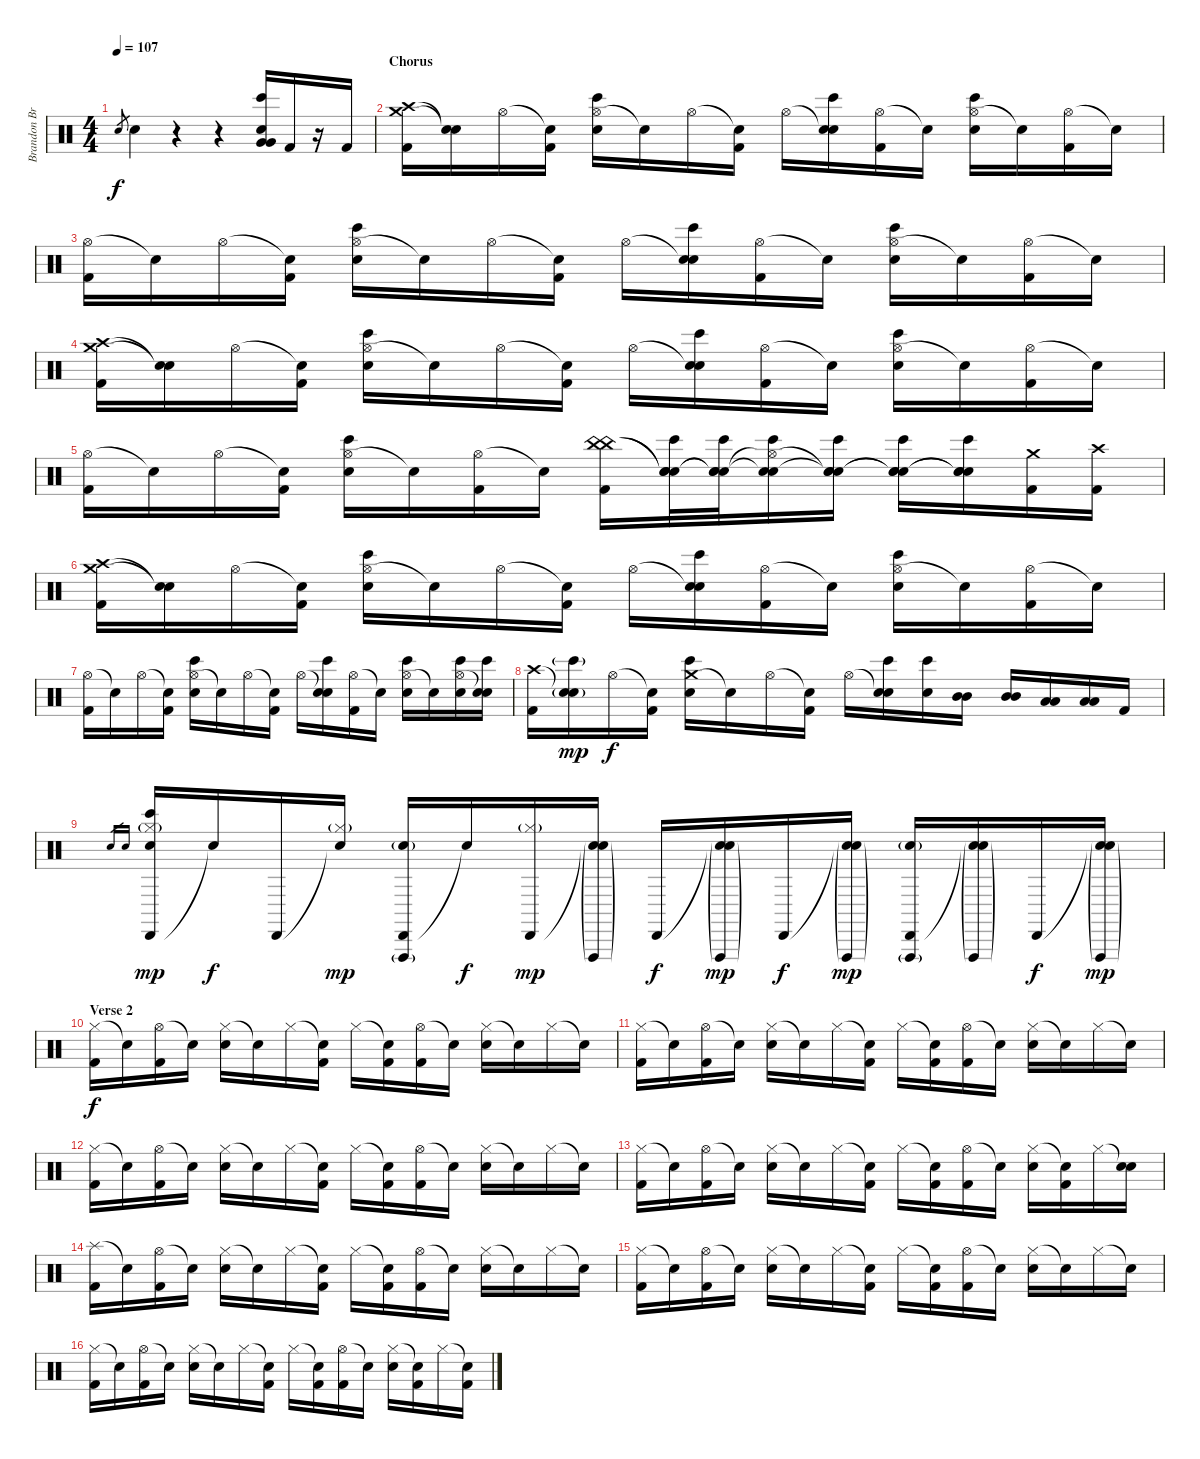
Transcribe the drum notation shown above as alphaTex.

\track ("Brandon Brown (Drums)" "Brandon Br") {instrument percussion}
\staff {score}
\articulation defaults
\ts (4 4)
\tempo 107
\clef neutral
\ks c "Electric Snare (hit)".8{gr dy f} "Electric Snare (hit)".4
r.4 r.4 ("Bongo High (hit)" "Electric Snare (hit)" "Very Low Tom (hit)" "Very Low Tom (hit)").16 "Kick (hit) 2".16 r.16 "Kick (hit) 2".16 |
\section ("" "Chorus")
("Crash high (hit)" "Crash medium (hit)" "Kick (hit) 2").16 ("Snare (hit)"{t} "Snare (hit)"{t}).16 "Hi-Hat (open)".16 ("Snare (hit)"{t} "Kick (hit) 2").16 ("Hi-Hat (open)" "Electric Snare (hit)" "Bongo High (hit)").16 "Snare (hit)"{t}.16 "Hi-Hat (open)".16 ("Snare (hit)"{t} "Kick (hit) 2").16 "Hi-Hat (open)".16 ("Snare (hit)"{t} "Electric Snare (hit)" "Bongo High (hit)").16 ("Hi-Hat (open)" "Kick (hit) 2").16 "Snare (hit)"{t}.16 ("Hi-Hat (open)" "Electric Snare (hit)" "Bongo High (hit)").16 "Snare (hit)"{t}.16 ("Hi-Hat (open)" "Kick (hit) 2").16 "Snare (hit)"{t}.16 |
("Hi-Hat (open)" "Kick (hit) 2").16 "Snare (hit)"{t}.16 "Hi-Hat (open)".16 ("Snare (hit)"{t} "Kick (hit) 2").16 ("Hi-Hat (open)" "Electric Snare (hit)" "Bongo High (hit)").16 "Snare (hit)"{t}.16 "Hi-Hat (open)".16 ("Snare (hit)"{t} "Kick (hit) 2").16 "Hi-Hat (open)".16 ("Snare (hit)"{t} "Electric Snare (hit)" "Bongo High (hit)").16 ("Hi-Hat (open)" "Kick (hit) 2").16 "Snare (hit)"{t}.16 ("Hi-Hat (open)" "Electric Snare (hit)" "Bongo High (hit)").16 "Snare (hit)"{t}.16 ("Hi-Hat (open)" "Kick (hit) 2").16 "Snare (hit)"{t}.16 |
("Crash high (hit)" "Crash medium (hit)" "Kick (hit) 2").16 ("Snare (hit)"{t} "Snare (hit)"{t}).16 "Hi-Hat (open)".16 ("Snare (hit)"{t} "Kick (hit) 2").16 ("Hi-Hat (open)" "Electric Snare (hit)" "Bongo High (hit)").16 "Snare (hit)"{t}.16 "Hi-Hat (open)".16 ("Snare (hit)"{t} "Kick (hit) 2").16 "Hi-Hat (open)".16 ("Snare (hit)"{t} "Electric Snare (hit)" "Bongo High (hit)").16 ("Hi-Hat (open)" "Kick (hit) 2").16 "Snare (hit)"{t}.16 ("Hi-Hat (open)" "Electric Snare (hit)" "Bongo High (hit)").16 "Snare (hit)"{t}.16 ("Hi-Hat (open)" "Kick (hit) 2").16 "Snare (hit)"{t}.16 |
("Hi-Hat (open)" "Kick (hit) 2").16 "Snare (hit)"{t}.16 "Hi-Hat (open)".16 ("Snare (hit)"{t} "Kick (hit) 2").16 ("Hi-Hat (open)" "Electric Snare (hit)" "Bongo High (hit)").16 "Snare (hit)"{t}.16 ("Hi-Hat (open)" "Kick (hit) 2").16 "Snare (hit)"{t}.16 ("China (hit)" "China (hit)" "Kick (hit) 2").16 ("Snare (hit)"{t} "Snare (hit)"{t} "Electric Snare (hit)" "Bongo High (hit)").32 ("Snare (hit)"{t} "Snare (hit)"{t} "Electric Snare (hit)" "Bongo High (hit)").32 ("Hi-Hat (open)"{t} "Snare (hit)"{t} "Electric Snare (hit)" "Bongo High (hit)").16 ("Snare (hit)"{t} "Snare (hit)"{t} "Electric Snare (hit)" "Bongo High (hit)").16 ("Snare (hit)"{t} "Snare (hit)"{t} "Electric Snare (hit)" "Bongo High (hit)").16 ("Snare (hit)"{t} "Snare (hit)"{t} "Electric Snare (hit)" "Bongo High (hit)").16 ("Crash medium (hit)" "Kick (hit) 2").16 ("Crash high (hit)" "Kick (hit) 2").16 |
("Crash high (hit)" "Crash medium (hit)" "Kick (hit) 2").16 ("Snare (hit)"{t} "Snare (hit)"{t}).16 "Hi-Hat (open)".16 ("Snare (hit)"{t} "Kick (hit) 2").16 ("Hi-Hat (open)" "Electric Snare (hit)" "Bongo High (hit)").16 "Snare (hit)"{t}.16 "Hi-Hat (open)".16 ("Snare (hit)"{t} "Kick (hit) 2").16 "Hi-Hat (open)".16 ("Snare (hit)"{t} "Electric Snare (hit)" "Bongo High (hit)").16 ("Hi-Hat (open)" "Kick (hit) 2").16 "Snare (hit)"{t}.16 ("Hi-Hat (open)" "Electric Snare (hit)" "Bongo High (hit)").16 "Snare (hit)"{t}.16 ("Hi-Hat (open)" "Kick (hit) 2").16 "Snare (hit)"{t}.16 |
("Hi-Hat (open)" "Kick (hit) 2").16 "Snare (hit)"{t}.16 "Hi-Hat (open)".16 ("Snare (hit)"{t} "Kick (hit) 2").16 ("Hi-Hat (open)" "Electric Snare (hit)" "Bongo High (hit)").16 "Snare (hit)"{t}.16 "Hi-Hat (open)".16 ("Snare (hit)"{t} "Kick (hit) 2").16 "Hi-Hat (open)".16 ("Snare (hit)"{t} "Electric Snare (hit)" "Bongo High (hit)").16 ("Hi-Hat (open)" "Kick (hit) 2").16 "Snare (hit)"{t}.16 ("Hi-Hat (open)" "Electric Snare (hit)" "Bongo High (hit)").16 "Snare (hit)"{t}.16 ("Hi-Hat (open)" "Electric Snare (hit)" "Bongo High (hit)").16 ("Snare (hit)"{t} "Electric Snare (hit)" "Bongo High (hit)").16 |
("Crash high (hit)" "Kick (hit) 2").16 ("Snare (hit)"{t} "Electric Snare (hit)"{g} "Bongo High (hit)"{g}).16{dy mp} "Hi-Hat (open)".16{dy f} ("Snare (hit)"{t} "Kick (hit) 2").16 ("Crash medium (hit)" "Electric Snare (hit)" "Bongo High (hit)").16 "Snare (hit)"{t}.16 "Hi-Hat (open)".16 ("Snare (hit)"{t} "Kick (hit) 2").16 "Hi-Hat (open)".16 ("Snare (hit)"{t} "Electric Snare (hit)" "Bongo High (hit)").16 ("Electric Snare (hit)" "Bongo High (hit)").16 ("Mid Tom (hit)" "Mid Tom (hit)").16 ("Mid Tom (hit)" "Mid Tom (hit)").16 ("Low Tom (hit)" "Low Tom (hit)").16 ("Low Tom (hit)" "Low Tom (hit)").16 "Kick (hit) 2".16 |
"Electric Snare (hit)".16{gr} "Snare (hit)".16{gr} ("Cabasa (hit)" "Electric Snare (hit)" "Bongo High (hit)" "Hi-Hat (closed)"{g}).16{dy mp} "Snare (hit)"{t}.16{dy f} "Cabasa (hit)".16 ("Snare (hit)"{t} "Hi-Hat (closed)"{g}).16{dy mp} ("Cabasa (hit)" "Vibraslap (hit)"{g} "Hand Clap (hit)"{g}).16 "Snare (hit)"{t}.16{dy f} ("Cabasa (hit)" "Hi-Hat (closed)"{g}).16{dy mp} ("Snare (hit)"{t} "Vibraslap (hit)"{g} "Hand Clap (hit)"{g}).16 "Cabasa (hit)".16{dy f} ("Snare (hit)"{t} "Vibraslap (hit)"{g} "Hand Clap (hit)"{g}).16{dy mp} "Cabasa (hit)".16{dy f} ("Snare (hit)"{t} "Vibraslap (hit)"{g} "Hand Clap (hit)"{g}).16{dy mp} ("Cabasa (hit)" "Vibraslap (hit)"{g} "Hand Clap (hit)"{g}).16 ("Snare (hit)"{t} "Vibraslap (hit)"{g} "Hand Clap (hit)"{g}).16 "Cabasa (hit)".16{dy f} ("Snare (hit)"{t} "Vibraslap (hit)"{g} "Hand Clap (hit)"{g}).16{dy mp} |
\section ("" "Verse 2")
("Hi-Hat (closed)" "Kick (hit) 2").16{dy f} "Snare (hit)"{t}.16 ("Hi-Hat (open)" "Kick (hit) 2").16 "Snare (hit)"{t}.16 ("Hi-Hat (closed)" "Electric Snare (hit)").16 "Snare (hit)"{t}.16 "Hi-Hat (closed)".16 ("Snare (hit)"{t} "Kick (hit) 2").16 "Hi-Hat (closed)".16 ("Snare (hit)"{t} "Kick (hit) 2").16 ("Hi-Hat (open)" "Kick (hit) 2").16 "Snare (hit)"{t}.16 ("Hi-Hat (closed)" "Electric Snare (hit)").16 "Snare (hit)"{t}.16 "Hi-Hat (closed)".16 "Snare (hit)"{t}.16 |
("Hi-Hat (closed)" "Kick (hit) 2").16 "Snare (hit)"{t}.16 ("Hi-Hat (open)" "Kick (hit) 2").16 "Snare (hit)"{t}.16 ("Hi-Hat (closed)" "Electric Snare (hit)").16 "Snare (hit)"{t}.16 "Hi-Hat (closed)".16 ("Snare (hit)"{t} "Kick (hit) 2").16 "Hi-Hat (closed)".16 ("Snare (hit)"{t} "Kick (hit) 2").16 ("Hi-Hat (open)" "Kick (hit) 2").16 "Snare (hit)"{t}.16 ("Hi-Hat (closed)" "Electric Snare (hit)").16 "Snare (hit)"{t}.16 "Hi-Hat (closed)".16 "Snare (hit)"{t}.16 |
("Hi-Hat (closed)" "Kick (hit) 2").16 "Snare (hit)"{t}.16 ("Hi-Hat (open)" "Kick (hit) 2").16 "Snare (hit)"{t}.16 ("Hi-Hat (closed)" "Electric Snare (hit)").16 "Snare (hit)"{t}.16 "Hi-Hat (closed)".16 ("Snare (hit)"{t} "Kick (hit) 2").16 "Hi-Hat (closed)".16 ("Snare (hit)"{t} "Kick (hit) 2").16 ("Hi-Hat (open)" "Kick (hit) 2").16 "Snare (hit)"{t}.16 ("Hi-Hat (closed)" "Electric Snare (hit)").16 "Snare (hit)"{t}.16 "Hi-Hat (closed)".16 "Snare (hit)"{t}.16 |
("Hi-Hat (closed)" "Kick (hit) 2").16 "Snare (hit)"{t}.16 ("Hi-Hat (open)" "Kick (hit) 2").16 "Snare (hit)"{t}.16 ("Hi-Hat (closed)" "Electric Snare (hit)").16 "Snare (hit)"{t}.16 "Hi-Hat (closed)".16 ("Snare (hit)"{t} "Kick (hit) 2").16 "Hi-Hat (closed)".16 ("Snare (hit)"{t} "Kick (hit) 2").16 ("Hi-Hat (open)" "Kick (hit) 2").16 "Snare (hit)"{t}.16 ("Hi-Hat (closed)" "Electric Snare (hit)").16 ("Snare (hit)"{t} "Kick (hit) 2").16 "Hi-Hat (closed)".16 ("Snare (hit)"{t} "Electric Snare (hit)").16 |
("Splash (hit)" "Kick (hit) 2").16 "Snare (hit)"{t}.16 ("Hi-Hat (open)" "Kick (hit) 2").16 "Snare (hit)"{t}.16 ("Hi-Hat (closed)" "Electric Snare (hit)").16 "Snare (hit)"{t}.16 "Hi-Hat (closed)".16 ("Snare (hit)"{t} "Kick (hit) 2").16 "Hi-Hat (closed)".16 ("Snare (hit)"{t} "Kick (hit) 2").16 ("Hi-Hat (open)" "Kick (hit) 2").16 "Snare (hit)"{t}.16 ("Hi-Hat (closed)" "Electric Snare (hit)").16 "Snare (hit)"{t}.16 "Hi-Hat (closed)".16 "Snare (hit)"{t}.16 |
("Hi-Hat (closed)" "Kick (hit) 2").16 "Snare (hit)"{t}.16 ("Hi-Hat (open)" "Kick (hit) 2").16 "Snare (hit)"{t}.16 ("Hi-Hat (closed)" "Electric Snare (hit)").16 "Snare (hit)"{t}.16 "Hi-Hat (closed)".16 ("Snare (hit)"{t} "Kick (hit) 2").16 "Hi-Hat (closed)".16 ("Snare (hit)"{t} "Kick (hit) 2").16 ("Hi-Hat (open)" "Kick (hit) 2").16 "Snare (hit)"{t}.16 ("Hi-Hat (closed)" "Electric Snare (hit)").16 "Snare (hit)"{t}.16 "Hi-Hat (closed)".16 "Snare (hit)"{t}.16 |
("Hi-Hat (closed)" "Kick (hit) 2").16 "Snare (hit)"{t}.16 ("Hi-Hat (open)" "Kick (hit) 2").16 "Snare (hit)"{t}.16 ("Hi-Hat (closed)" "Electric Snare (hit)").16 "Snare (hit)"{t}.16 "Hi-Hat (closed)".16 ("Snare (hit)"{t} "Kick (hit) 2").16 "Hi-Hat (closed)".16 ("Snare (hit)"{t} "Kick (hit) 2").16 ("Hi-Hat (open)" "Kick (hit) 2").16 "Snare (hit)"{t}.16 ("Hi-Hat (closed)" "Electric Snare (hit)").16 ("Snare (hit)"{t} "Kick (hit) 2").16 "Hi-Hat (closed)".16 ("Snare (hit)"{t} "Kick (hit) 2").16
